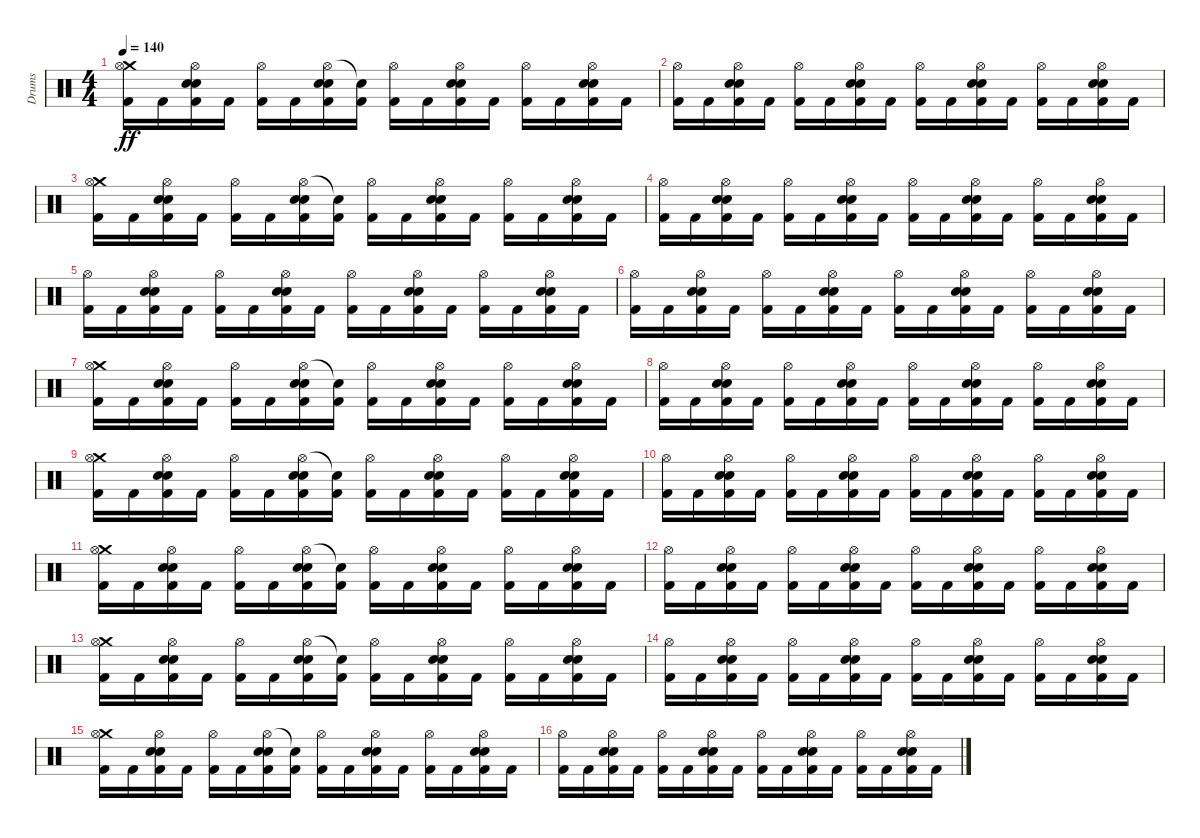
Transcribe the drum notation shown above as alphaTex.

\track ("Drums" "Drums") {instrument percussion}
\staff {score}
\articulation defaults
\ts (4 4)
\tempo 140
\clef neutral
\ks c
("Crash medium (hit)" "Hi-Hat (open)" "Kick (hit) 2").16{dy ff} "Kick (hit) 2".16 ("Hi-Hat (open)" "Electric Snare (hit)" "Electric Snare (hit)" "Kick (hit) 2").16 "Kick (hit) 2".16 ("Hi-Hat (open)" "Kick (hit) 2").16 "Kick (hit) 2".16 ("Hi-Hat (open)" "Electric Snare (hit)" "Electric Snare (hit)" "Kick (hit) 2").16 ("Snare (hit)"{t} "Kick (hit) 2").16 ("Hi-Hat (open)" "Kick (hit) 2").16 "Kick (hit) 2".16 ("Hi-Hat (open)" "Electric Snare (hit)" "Electric Snare (hit)" "Kick (hit) 2").16 "Kick (hit) 2".16 ("Hi-Hat (open)" "Kick (hit) 2").16 "Kick (hit) 2".16 ("Hi-Hat (open)" "Electric Snare (hit)" "Electric Snare (hit)" "Kick (hit) 2").16 "Kick (hit) 2".16 |
("Hi-Hat (open)" "Kick (hit) 2").16 "Kick (hit) 2".16 ("Hi-Hat (open)" "Electric Snare (hit)" "Electric Snare (hit)" "Kick (hit) 2").16 "Kick (hit) 2".16 ("Hi-Hat (open)" "Kick (hit) 2").16 "Kick (hit) 2".16 ("Hi-Hat (open)" "Electric Snare (hit)" "Electric Snare (hit)" "Kick (hit) 2").16 "Kick (hit) 2".16 ("Hi-Hat (open)" "Kick (hit) 2").16 "Kick (hit) 2".16 ("Hi-Hat (open)" "Electric Snare (hit)" "Electric Snare (hit)" "Kick (hit) 2").16 "Kick (hit) 2".16 ("Hi-Hat (open)" "Kick (hit) 2").16 "Kick (hit) 2".16 ("Hi-Hat (open)" "Electric Snare (hit)" "Electric Snare (hit)" "Kick (hit) 2").16 "Kick (hit) 2".16 |
("Crash medium (hit)" "Hi-Hat (open)" "Kick (hit) 2").16 "Kick (hit) 2".16 ("Hi-Hat (open)" "Electric Snare (hit)" "Electric Snare (hit)" "Kick (hit) 2").16 "Kick (hit) 2".16 ("Hi-Hat (open)" "Kick (hit) 2").16 "Kick (hit) 2".16 ("Hi-Hat (open)" "Electric Snare (hit)" "Electric Snare (hit)" "Kick (hit) 2").16 ("Snare (hit)"{t} "Kick (hit) 2").16 ("Hi-Hat (open)" "Kick (hit) 2").16 "Kick (hit) 2".16 ("Hi-Hat (open)" "Electric Snare (hit)" "Electric Snare (hit)" "Kick (hit) 2").16 "Kick (hit) 2".16 ("Hi-Hat (open)" "Kick (hit) 2").16 "Kick (hit) 2".16 ("Hi-Hat (open)" "Electric Snare (hit)" "Electric Snare (hit)" "Kick (hit) 2").16 "Kick (hit) 2".16 |
("Hi-Hat (open)" "Kick (hit) 2").16 "Kick (hit) 2".16 ("Hi-Hat (open)" "Electric Snare (hit)" "Electric Snare (hit)" "Kick (hit) 2").16 "Kick (hit) 2".16 ("Hi-Hat (open)" "Kick (hit) 2").16 "Kick (hit) 2".16 ("Hi-Hat (open)" "Electric Snare (hit)" "Electric Snare (hit)" "Kick (hit) 2").16 "Kick (hit) 2".16 ("Hi-Hat (open)" "Kick (hit) 2").16 "Kick (hit) 2".16 ("Hi-Hat (open)" "Electric Snare (hit)" "Electric Snare (hit)" "Kick (hit) 2").16 "Kick (hit) 2".16 ("Hi-Hat (open)" "Kick (hit) 2").16 "Kick (hit) 2".16 ("Hi-Hat (open)" "Electric Snare (hit)" "Electric Snare (hit)" "Kick (hit) 2").16 "Kick (hit) 2".16 |
("Hi-Hat (open)" "Kick (hit) 2").16 "Kick (hit) 2".16 ("Hi-Hat (open)" "Electric Snare (hit)" "Electric Snare (hit)" "Kick (hit) 2").16 "Kick (hit) 2".16 ("Hi-Hat (open)" "Kick (hit) 2").16 "Kick (hit) 2".16 ("Hi-Hat (open)" "Electric Snare (hit)" "Electric Snare (hit)" "Kick (hit) 2").16 "Kick (hit) 2".16 ("Hi-Hat (open)" "Kick (hit) 2").16 "Kick (hit) 2".16 ("Hi-Hat (open)" "Electric Snare (hit)" "Electric Snare (hit)" "Kick (hit) 2").16 "Kick (hit) 2".16 ("Hi-Hat (open)" "Kick (hit) 2").16 "Kick (hit) 2".16 ("Hi-Hat (open)" "Electric Snare (hit)" "Electric Snare (hit)" "Kick (hit) 2").16 "Kick (hit) 2".16 |
("Hi-Hat (open)" "Kick (hit) 2").16 "Kick (hit) 2".16 ("Hi-Hat (open)" "Electric Snare (hit)" "Electric Snare (hit)" "Kick (hit) 2").16 "Kick (hit) 2".16 ("Hi-Hat (open)" "Kick (hit) 2").16 "Kick (hit) 2".16 ("Hi-Hat (open)" "Electric Snare (hit)" "Electric Snare (hit)" "Kick (hit) 2").16 "Kick (hit) 2".16 ("Hi-Hat (open)" "Kick (hit) 2").16 "Kick (hit) 2".16 ("Hi-Hat (open)" "Electric Snare (hit)" "Electric Snare (hit)" "Kick (hit) 2").16 "Kick (hit) 2".16 ("Hi-Hat (open)" "Kick (hit) 2").16 "Kick (hit) 2".16 ("Hi-Hat (open)" "Electric Snare (hit)" "Electric Snare (hit)" "Kick (hit) 2").16 "Kick (hit) 2".16 |
("Crash medium (hit)" "Hi-Hat (open)" "Kick (hit) 2").16 "Kick (hit) 2".16 ("Hi-Hat (open)" "Electric Snare (hit)" "Electric Snare (hit)" "Kick (hit) 2").16 "Kick (hit) 2".16 ("Hi-Hat (open)" "Kick (hit) 2").16 "Kick (hit) 2".16 ("Hi-Hat (open)" "Electric Snare (hit)" "Electric Snare (hit)" "Kick (hit) 2").16 ("Snare (hit)"{t} "Kick (hit) 2").16 ("Hi-Hat (open)" "Kick (hit) 2").16 "Kick (hit) 2".16 ("Hi-Hat (open)" "Electric Snare (hit)" "Electric Snare (hit)" "Kick (hit) 2").16 "Kick (hit) 2".16 ("Hi-Hat (open)" "Kick (hit) 2").16 "Kick (hit) 2".16 ("Hi-Hat (open)" "Electric Snare (hit)" "Electric Snare (hit)" "Kick (hit) 2").16 "Kick (hit) 2".16 |
("Hi-Hat (open)" "Kick (hit) 2").16 "Kick (hit) 2".16 ("Hi-Hat (open)" "Electric Snare (hit)" "Electric Snare (hit)" "Kick (hit) 2").16 "Kick (hit) 2".16 ("Hi-Hat (open)" "Kick (hit) 2").16 "Kick (hit) 2".16 ("Hi-Hat (open)" "Electric Snare (hit)" "Electric Snare (hit)" "Kick (hit) 2").16 "Kick (hit) 2".16 ("Hi-Hat (open)" "Kick (hit) 2").16 "Kick (hit) 2".16 ("Hi-Hat (open)" "Electric Snare (hit)" "Electric Snare (hit)" "Kick (hit) 2").16 "Kick (hit) 2".16 ("Hi-Hat (open)" "Kick (hit) 2").16 "Kick (hit) 2".16 ("Hi-Hat (open)" "Electric Snare (hit)" "Electric Snare (hit)" "Kick (hit) 2").16 "Kick (hit) 2".16 |
("Crash medium (hit)" "Hi-Hat (open)" "Kick (hit) 2").16 "Kick (hit) 2".16 ("Hi-Hat (open)" "Electric Snare (hit)" "Electric Snare (hit)" "Kick (hit) 2").16 "Kick (hit) 2".16 ("Hi-Hat (open)" "Kick (hit) 2").16 "Kick (hit) 2".16 ("Hi-Hat (open)" "Electric Snare (hit)" "Electric Snare (hit)" "Kick (hit) 2").16 ("Snare (hit)"{t} "Kick (hit) 2").16 ("Hi-Hat (open)" "Kick (hit) 2").16 "Kick (hit) 2".16 ("Hi-Hat (open)" "Electric Snare (hit)" "Electric Snare (hit)" "Kick (hit) 2").16 "Kick (hit) 2".16 ("Hi-Hat (open)" "Kick (hit) 2").16 "Kick (hit) 2".16 ("Hi-Hat (open)" "Electric Snare (hit)" "Electric Snare (hit)" "Kick (hit) 2").16 "Kick (hit) 2".16 |
("Hi-Hat (open)" "Kick (hit) 2").16 "Kick (hit) 2".16 ("Hi-Hat (open)" "Electric Snare (hit)" "Electric Snare (hit)" "Kick (hit) 2").16 "Kick (hit) 2".16 ("Hi-Hat (open)" "Kick (hit) 2").16 "Kick (hit) 2".16 ("Hi-Hat (open)" "Electric Snare (hit)" "Electric Snare (hit)" "Kick (hit) 2").16 "Kick (hit) 2".16 ("Hi-Hat (open)" "Kick (hit) 2").16 "Kick (hit) 2".16 ("Hi-Hat (open)" "Electric Snare (hit)" "Electric Snare (hit)" "Kick (hit) 2").16 "Kick (hit) 2".16 ("Hi-Hat (open)" "Kick (hit) 2").16 "Kick (hit) 2".16 ("Hi-Hat (open)" "Electric Snare (hit)" "Electric Snare (hit)" "Kick (hit) 2").16 "Kick (hit) 2".16 |
("Crash medium (hit)" "Hi-Hat (open)" "Kick (hit) 2").16 "Kick (hit) 2".16 ("Hi-Hat (open)" "Electric Snare (hit)" "Electric Snare (hit)" "Kick (hit) 2").16 "Kick (hit) 2".16 ("Hi-Hat (open)" "Kick (hit) 2").16 "Kick (hit) 2".16 ("Hi-Hat (open)" "Electric Snare (hit)" "Electric Snare (hit)" "Kick (hit) 2").16 ("Snare (hit)"{t} "Kick (hit) 2").16 ("Hi-Hat (open)" "Kick (hit) 2").16 "Kick (hit) 2".16 ("Hi-Hat (open)" "Electric Snare (hit)" "Electric Snare (hit)" "Kick (hit) 2").16 "Kick (hit) 2".16 ("Hi-Hat (open)" "Kick (hit) 2").16 "Kick (hit) 2".16 ("Hi-Hat (open)" "Electric Snare (hit)" "Electric Snare (hit)" "Kick (hit) 2").16 "Kick (hit) 2".16 |
("Hi-Hat (open)" "Kick (hit) 2").16 "Kick (hit) 2".16 ("Hi-Hat (open)" "Electric Snare (hit)" "Electric Snare (hit)" "Kick (hit) 2").16 "Kick (hit) 2".16 ("Hi-Hat (open)" "Kick (hit) 2").16 "Kick (hit) 2".16 ("Hi-Hat (open)" "Electric Snare (hit)" "Electric Snare (hit)" "Kick (hit) 2").16 "Kick (hit) 2".16 ("Hi-Hat (open)" "Kick (hit) 2").16 "Kick (hit) 2".16 ("Hi-Hat (open)" "Electric Snare (hit)" "Electric Snare (hit)" "Kick (hit) 2").16 "Kick (hit) 2".16 ("Hi-Hat (open)" "Kick (hit) 2").16 "Kick (hit) 2".16 ("Hi-Hat (open)" "Electric Snare (hit)" "Electric Snare (hit)" "Kick (hit) 2").16 "Kick (hit) 2".16 |
("Crash medium (hit)" "Hi-Hat (open)" "Kick (hit) 2").16 "Kick (hit) 2".16 ("Hi-Hat (open)" "Electric Snare (hit)" "Electric Snare (hit)" "Kick (hit) 2").16 "Kick (hit) 2".16 ("Hi-Hat (open)" "Kick (hit) 2").16 "Kick (hit) 2".16 ("Hi-Hat (open)" "Electric Snare (hit)" "Electric Snare (hit)" "Kick (hit) 2").16 ("Snare (hit)"{t} "Kick (hit) 2").16 ("Hi-Hat (open)" "Kick (hit) 2").16 "Kick (hit) 2".16 ("Hi-Hat (open)" "Electric Snare (hit)" "Electric Snare (hit)" "Kick (hit) 2").16 "Kick (hit) 2".16 ("Hi-Hat (open)" "Kick (hit) 2").16 "Kick (hit) 2".16 ("Hi-Hat (open)" "Electric Snare (hit)" "Electric Snare (hit)" "Kick (hit) 2").16 "Kick (hit) 2".16 |
("Hi-Hat (open)" "Kick (hit) 2").16 "Kick (hit) 2".16 ("Hi-Hat (open)" "Electric Snare (hit)" "Electric Snare (hit)" "Kick (hit) 2").16 "Kick (hit) 2".16 ("Hi-Hat (open)" "Kick (hit) 2").16 "Kick (hit) 2".16 ("Hi-Hat (open)" "Electric Snare (hit)" "Electric Snare (hit)" "Kick (hit) 2").16 "Kick (hit) 2".16 ("Hi-Hat (open)" "Kick (hit) 2").16 "Kick (hit) 2".16 ("Hi-Hat (open)" "Electric Snare (hit)" "Electric Snare (hit)" "Kick (hit) 2").16 "Kick (hit) 2".16 ("Hi-Hat (open)" "Kick (hit) 2").16 "Kick (hit) 2".16 ("Hi-Hat (open)" "Electric Snare (hit)" "Electric Snare (hit)" "Kick (hit) 2").16 "Kick (hit) 2".16 |
("Crash medium (hit)" "Hi-Hat (open)" "Kick (hit) 2").16 "Kick (hit) 2".16 ("Hi-Hat (open)" "Electric Snare (hit)" "Electric Snare (hit)" "Kick (hit) 2").16 "Kick (hit) 2".16 ("Hi-Hat (open)" "Kick (hit) 2").16 "Kick (hit) 2".16 ("Hi-Hat (open)" "Electric Snare (hit)" "Electric Snare (hit)" "Kick (hit) 2").16 ("Snare (hit)"{t} "Kick (hit) 2").16 ("Hi-Hat (open)" "Kick (hit) 2").16 "Kick (hit) 2".16 ("Hi-Hat (open)" "Electric Snare (hit)" "Electric Snare (hit)" "Kick (hit) 2").16 "Kick (hit) 2".16 ("Hi-Hat (open)" "Kick (hit) 2").16 "Kick (hit) 2".16 ("Hi-Hat (open)" "Electric Snare (hit)" "Electric Snare (hit)" "Kick (hit) 2").16 "Kick (hit) 2".16 |
("Hi-Hat (open)" "Kick (hit) 2").16 "Kick (hit) 2".16 ("Hi-Hat (open)" "Electric Snare (hit)" "Electric Snare (hit)" "Kick (hit) 2").16 "Kick (hit) 2".16 ("Hi-Hat (open)" "Kick (hit) 2").16 "Kick (hit) 2".16 ("Hi-Hat (open)" "Electric Snare (hit)" "Electric Snare (hit)" "Kick (hit) 2").16 "Kick (hit) 2".16 ("Hi-Hat (open)" "Kick (hit) 2").16 "Kick (hit) 2".16 ("Hi-Hat (open)" "Electric Snare (hit)" "Electric Snare (hit)" "Kick (hit) 2").16 "Kick (hit) 2".16 ("Hi-Hat (open)" "Kick (hit) 2").16 "Kick (hit) 2".16 ("Hi-Hat (open)" "Electric Snare (hit)" "Electric Snare (hit)" "Kick (hit) 2").16 "Kick (hit) 2".16
